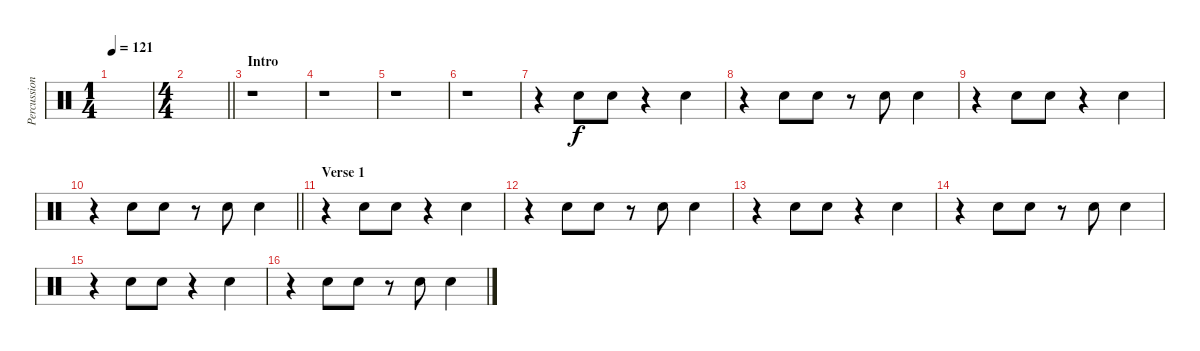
\track ("Percussion" "Percussion") {instrument percussion}
\staff {score}
\articulation defaults
\ts (1 4)
\tempo 121
\clef neutral
\ks c
|
\ts (4 4)
\barLineRight lightlight
|
\section ("" "Intro")
r.1 |
r.1 |
r.1 |
r.1 |
r.4 "Hand Clap (hit)".8 "Hand Clap (hit)".8 r.4 "Hand Clap (hit)".4 |
r.4 "Hand Clap (hit)".8 "Hand Clap (hit)".8 r.8 "Hand Clap (hit)".8 "Hand Clap (hit)".4 |
r.4 "Hand Clap (hit)".8 "Hand Clap (hit)".8 r.4 "Hand Clap (hit)".4 |
\barLineRight lightlight
r.4 "Hand Clap (hit)".8 "Hand Clap (hit)".8 r.8 "Hand Clap (hit)".8 "Hand Clap (hit)".4 |
\section ("" "Verse 1")
r.4 "Hand Clap (hit)".8 "Hand Clap (hit)".8 r.4 "Hand Clap (hit)".4 |
r.4 "Hand Clap (hit)".8 "Hand Clap (hit)".8 r.8 "Hand Clap (hit)".8 "Hand Clap (hit)".4 |
r.4 "Hand Clap (hit)".8 "Hand Clap (hit)".8 r.4 "Hand Clap (hit)".4 |
r.4 "Hand Clap (hit)".8 "Hand Clap (hit)".8 r.8 "Hand Clap (hit)".8 "Hand Clap (hit)".4 |
r.4 "Hand Clap (hit)".8 "Hand Clap (hit)".8 r.4 "Hand Clap (hit)".4 |
r.4 "Hand Clap (hit)".8 "Hand Clap (hit)".8 r.8 "Hand Clap (hit)".8 "Hand Clap (hit)".4
